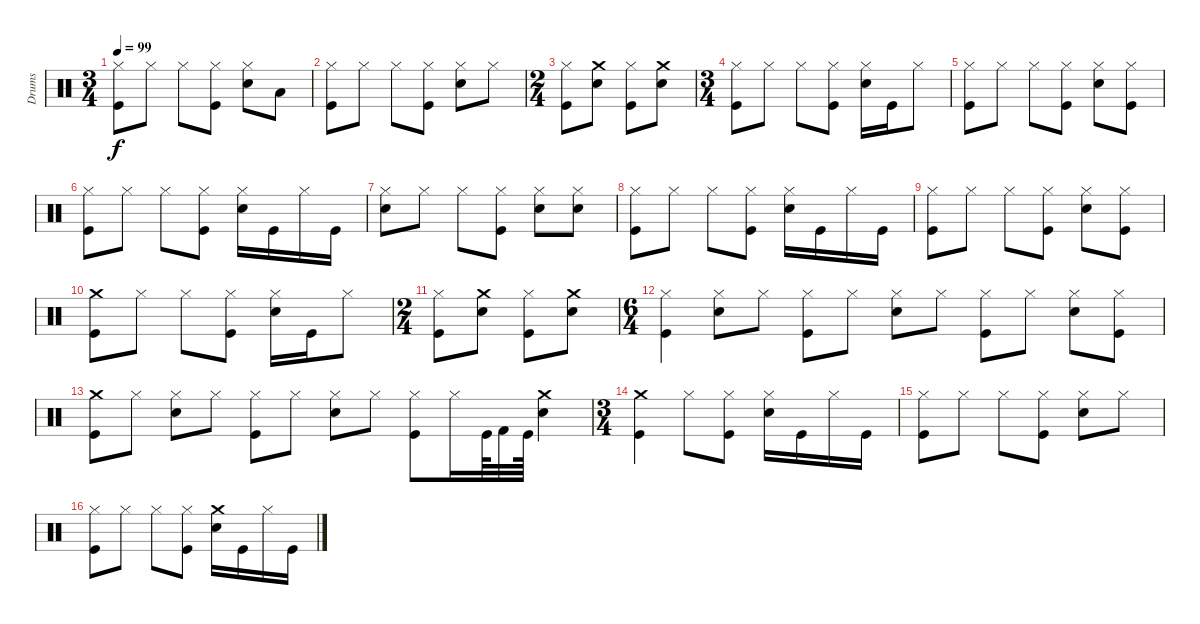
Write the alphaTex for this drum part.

\track ("Drums" "Drums") {instrument percussion}
\staff {score}
\articulation defaults
\ts (3 4)
\tempo 99
\clef neutral
\ks c
("Hi-Hat (closed)" "Kick (hit)").8{dy f} "Hi-Hat (closed)".8 "Hi-Hat (closed)".8 ("Hi-Hat (closed)" "Kick (hit)").8 ("Snare (hit) 2" "Hi-Hat (closed)").8 "Low Tom (hit)".8 |
("Hi-Hat (closed)" "Kick (hit)").8 "Hi-Hat (closed)".8 "Hi-Hat (closed)".8 ("Kick (hit)" "Hi-Hat (closed)").8 ("Snare (hit) 2" "Hi-Hat (closed)").8 "Hi-Hat (closed)".8 |
\ts (2 4)
("Hi-Hat (closed)" "Kick (hit)").8 ("Snare (hit) 2" "Crash medium (hit)").8 ("Hi-Hat (closed)" "Kick (hit)").8 ("Crash medium (hit)" "Snare (hit) 2").8 |
\ts (3 4)
("Hi-Hat (closed)" "Kick (hit)").8 "Hi-Hat (closed)".8 "Hi-Hat (closed)".8 ("Hi-Hat (closed)" "Kick (hit)").8 ("Snare (hit) 2" "Hi-Hat (closed)").16 "Kick (hit)".16 "Hi-Hat (closed)".8 |
("Hi-Hat (closed)" "Kick (hit)").8 "Hi-Hat (closed)".8 "Hi-Hat (closed)".8 ("Kick (hit)" "Hi-Hat (closed)").8 ("Hi-Hat (closed)" "Snare (hit) 2").8 ("Kick (hit)" "Hi-Hat (closed)").8 |
("Hi-Hat (closed)" "Kick (hit)").8 "Hi-Hat (closed)".8 "Hi-Hat (closed)".8 ("Hi-Hat (closed)" "Kick (hit)").8 ("Snare (hit) 2" "Hi-Hat (closed)").16 "Kick (hit)".16 "Hi-Hat (closed)".16 "Kick (hit)".16 |
("Hi-Hat (closed)" "Snare (hit) 2").8 "Hi-Hat (closed)".8 "Hi-Hat (closed)".8 ("Kick (hit)" "Hi-Hat (closed)").8 ("Hi-Hat (closed)" "Snare (hit) 2").8 ("Snare (hit) 2" "Hi-Hat (closed)").8 |
("Hi-Hat (closed)" "Kick (hit)").8 "Hi-Hat (closed)".8 "Hi-Hat (closed)".8 ("Kick (hit)" "Hi-Hat (closed)").8 ("Hi-Hat (closed)" "Snare (hit) 2").16 "Kick (hit)".16 "Hi-Hat (closed)".16 "Kick (hit)".16 |
("Hi-Hat (closed)" "Kick (hit)").8 "Hi-Hat (closed)".8 "Hi-Hat (closed)".8 ("Hi-Hat (closed)" "Kick (hit)").8 ("Snare (hit) 2" "Hi-Hat (closed)").8 ("Hi-Hat (closed)" "Kick (hit)").8 |
("Crash medium (hit)" "Kick (hit)").8 "Hi-Hat (closed)".8 "Hi-Hat (closed)".8 ("Kick (hit)" "Hi-Hat (closed)").8 ("Hi-Hat (closed)" "Snare (hit) 2").16 "Kick (hit)".16 "Hi-Hat (closed)".8 |
\ts (2 4)
("Hi-Hat (closed)" "Kick (hit)").8 ("Crash medium (hit)" "Snare (hit) 2").8 ("Hi-Hat (closed)" "Kick (hit)").8 ("Crash medium (hit)" "Snare (hit) 2").8 |
\ts (6 4)
("Hi-Hat (closed)" "Kick (hit)").4 ("Hi-Hat (closed)" "Snare (hit) 2").8 "Hi-Hat (closed)".8 ("Hi-Hat (closed)" "Kick (hit)").8 "Hi-Hat (closed)".8 ("Snare (hit) 2" "Hi-Hat (closed)").8 "Hi-Hat (closed)".8 ("Hi-Hat (closed)" "Kick (hit)").8 "Hi-Hat (closed)".8 ("Snare (hit) 2" "Hi-Hat (closed)").8 ("Hi-Hat (closed)" "Kick (hit)").8 |
("Kick (hit)" "Crash medium (hit)").8 "Hi-Hat (closed)".8 ("Hi-Hat (closed)" "Snare (hit) 2").8 "Hi-Hat (closed)".8 ("Hi-Hat (closed)" "Kick (hit)").8 "Hi-Hat (closed)".8 ("Snare (hit) 2" "Hi-Hat (closed)").8 "Hi-Hat (closed)".8 ("Hi-Hat (closed)" "Kick (hit)").8 "Hi-Hat (closed)".16 "Kick (hit)".64 "Kick (hit) 2".32 "Kick (hit)".64 ("Crash medium (hit)" "Snare (hit) 2").4 |
\ts (3 4)
("Crash medium (hit)" "Kick (hit)").4 "Hi-Hat (closed)".8 ("Kick (hit)" "Hi-Hat (closed)").8 ("Snare (hit) 2" "Hi-Hat (closed)").16 "Kick (hit)".16 "Hi-Hat (closed)".16 "Kick (hit)".16 |
("Hi-Hat (closed)" "Kick (hit)").8 "Hi-Hat (closed)".8 "Hi-Hat (closed)".8 ("Hi-Hat (closed)" "Kick (hit)").8 ("Snare (hit) 2" "Hi-Hat (closed)").8 "Hi-Hat (closed)".8 |
("Hi-Hat (closed)" "Kick (hit)").8 "Hi-Hat (closed)".8 "Hi-Hat (closed)".8 ("Kick (hit)" "Hi-Hat (closed)").8 ("Crash medium (hit)" "Snare (hit) 2").16 "Kick (hit)".16 "Hi-Hat (closed)".16 "Kick (hit)".16
